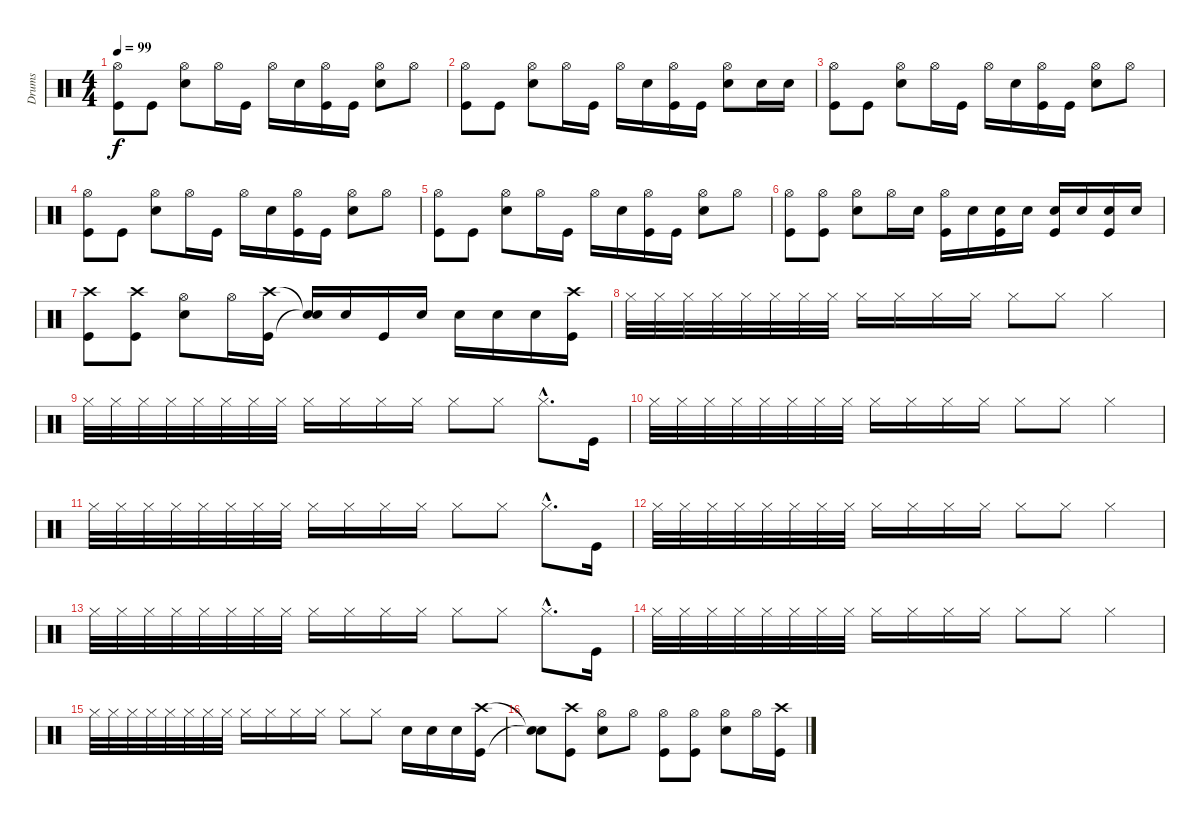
\track ("Drums" "Drums") {instrument percussion}
\staff {score}
\articulation defaults
\ts (4 4)
\tempo 99
\clef neutral
\ks c
("Hi-Hat (open)" "Kick (hit)").8{dy f} "Kick (hit)".8 ("Hi-Hat (open)" "Electric Snare (hit)").8 "Hi-Hat (open)".16 "Kick (hit)".16 "Hi-Hat (open)".16 "Electric Snare (hit)".16 ("Hi-Hat (open)" "Kick (hit)").16 "Kick (hit)".16 ("Hi-Hat (open)" "Electric Snare (hit)").8 "Hi-Hat (open)".8 |
("Hi-Hat (open)" "Kick (hit)").8 "Kick (hit)".8 ("Hi-Hat (open)" "Electric Snare (hit)").8 "Hi-Hat (open)".16 "Kick (hit)".16 "Hi-Hat (open)".16 "Electric Snare (hit)".16 ("Hi-Hat (open)" "Kick (hit)").16 "Kick (hit)".16 ("Hi-Hat (open)" "Electric Snare (hit)").8 "Electric Snare (hit)".16 "Electric Snare (hit)".16 |
("Hi-Hat (open)" "Kick (hit)").8 "Kick (hit)".8 ("Hi-Hat (open)" "Electric Snare (hit)").8 "Hi-Hat (open)".16 "Kick (hit)".16 "Hi-Hat (open)".16 "Electric Snare (hit)".16 ("Hi-Hat (open)" "Kick (hit)").16 "Kick (hit)".16 ("Hi-Hat (open)" "Electric Snare (hit)").8 "Hi-Hat (open)".8 |
("Hi-Hat (open)" "Kick (hit)").8 "Kick (hit)".8 ("Hi-Hat (open)" "Electric Snare (hit)").8 "Hi-Hat (open)".16 "Kick (hit)".16 "Hi-Hat (open)".16 "Electric Snare (hit)".16 ("Hi-Hat (open)" "Kick (hit)").16 "Kick (hit)".16 ("Hi-Hat (open)" "Electric Snare (hit)").8 "Hi-Hat (open)".8 |
("Hi-Hat (open)" "Kick (hit)").8 "Kick (hit)".8 ("Hi-Hat (open)" "Electric Snare (hit)").8 "Hi-Hat (open)".16 "Kick (hit)".16 "Hi-Hat (open)".16 "Electric Snare (hit)".16 ("Hi-Hat (open)" "Kick (hit)").16 "Kick (hit)".16 ("Hi-Hat (open)" "Electric Snare (hit)").8 "Hi-Hat (open)".8 |
("Hi-Hat (open)" "Kick (hit)").8 ("Hi-Hat (open)" "Kick (hit)").8 ("Hi-Hat (open)" "Electric Snare (hit)").8 "Hi-Hat (open)".16 "Electric Snare (hit)".16 ("Hi-Hat (open)" "Kick (hit)").16 "Electric Snare (hit)".16 ("Electric Snare (hit)" "Kick (hit)").16 "Electric Snare (hit)".16 ("Electric Snare (hit)" "Kick (hit)").16 "Electric Snare (hit)".16 ("Electric Snare (hit)" "Kick (hit)").16 "Electric Snare (hit)".16 |
("Crash high (hit)" "Kick (hit)").8 ("Crash high (hit)" "Kick (hit)").8 ("Hi-Hat (open)" "Electric Snare (hit)").8 "Hi-Hat (open)".16 ("Crash high (hit)" "Kick (hit)").16 ("Snare (hit)"{t} "Snare (hit)"{t}).16 "Electric Snare (hit)".16 "Kick (hit)".16 "Electric Snare (hit)".16 "Electric Snare (hit)".16 "Electric Snare (hit)".16 "Electric Snare (hit)".16 ("Crash high (hit)" "Kick (hit)").16 |
"Hi-Hat (closed)".32 "Hi-Hat (closed)".32 "Hi-Hat (closed)".32 "Hi-Hat (closed)".32 "Hi-Hat (closed)".32 "Hi-Hat (closed)".32 "Hi-Hat (closed)".32 "Hi-Hat (closed)".32 "Hi-Hat (closed)".16 "Hi-Hat (closed)".16 "Hi-Hat (closed)".16 "Hi-Hat (closed)".16 "Hi-Hat (closed)".8 "Hi-Hat (closed)".8 "Hi-Hat (closed)".4 |
"Hi-Hat (closed)".32 "Hi-Hat (closed)".32 "Hi-Hat (closed)".32 "Hi-Hat (closed)".32 "Hi-Hat (closed)".32 "Hi-Hat (closed)".32 "Hi-Hat (closed)".32 "Hi-Hat (closed)".32 "Hi-Hat (closed)".16 "Hi-Hat (closed)".16 "Hi-Hat (closed)".16 "Hi-Hat (closed)".16 "Hi-Hat (closed)".8 "Hi-Hat (closed)".8 "Hi-Hat (closed)"{hac}.8{d} "Kick (hit)".16 |
"Hi-Hat (closed)".32 "Hi-Hat (closed)".32 "Hi-Hat (closed)".32 "Hi-Hat (closed)".32 "Hi-Hat (closed)".32 "Hi-Hat (closed)".32 "Hi-Hat (closed)".32 "Hi-Hat (closed)".32 "Hi-Hat (closed)".16 "Hi-Hat (closed)".16 "Hi-Hat (closed)".16 "Hi-Hat (closed)".16 "Hi-Hat (closed)".8 "Hi-Hat (closed)".8 "Hi-Hat (closed)".4 |
"Hi-Hat (closed)".32 "Hi-Hat (closed)".32 "Hi-Hat (closed)".32 "Hi-Hat (closed)".32 "Hi-Hat (closed)".32 "Hi-Hat (closed)".32 "Hi-Hat (closed)".32 "Hi-Hat (closed)".32 "Hi-Hat (closed)".16 "Hi-Hat (closed)".16 "Hi-Hat (closed)".16 "Hi-Hat (closed)".16 "Hi-Hat (closed)".8 "Hi-Hat (closed)".8 "Hi-Hat (closed)"{hac}.8{d} "Kick (hit)".16 |
"Hi-Hat (closed)".32 "Hi-Hat (closed)".32 "Hi-Hat (closed)".32 "Hi-Hat (closed)".32 "Hi-Hat (closed)".32 "Hi-Hat (closed)".32 "Hi-Hat (closed)".32 "Hi-Hat (closed)".32 "Hi-Hat (closed)".16 "Hi-Hat (closed)".16 "Hi-Hat (closed)".16 "Hi-Hat (closed)".16 "Hi-Hat (closed)".8 "Hi-Hat (closed)".8 "Hi-Hat (closed)".4 |
"Hi-Hat (closed)".32 "Hi-Hat (closed)".32 "Hi-Hat (closed)".32 "Hi-Hat (closed)".32 "Hi-Hat (closed)".32 "Hi-Hat (closed)".32 "Hi-Hat (closed)".32 "Hi-Hat (closed)".32 "Hi-Hat (closed)".16 "Hi-Hat (closed)".16 "Hi-Hat (closed)".16 "Hi-Hat (closed)".16 "Hi-Hat (closed)".8 "Hi-Hat (closed)".8 "Hi-Hat (closed)"{hac}.8{d} "Kick (hit)".16 |
"Hi-Hat (closed)".32 "Hi-Hat (closed)".32 "Hi-Hat (closed)".32 "Hi-Hat (closed)".32 "Hi-Hat (closed)".32 "Hi-Hat (closed)".32 "Hi-Hat (closed)".32 "Hi-Hat (closed)".32 "Hi-Hat (closed)".16 "Hi-Hat (closed)".16 "Hi-Hat (closed)".16 "Hi-Hat (closed)".16 "Hi-Hat (closed)".8 "Hi-Hat (closed)".8 "Hi-Hat (closed)".4 |
"Hi-Hat (closed)".32 "Hi-Hat (closed)".32 "Hi-Hat (closed)".32 "Hi-Hat (closed)".32 "Hi-Hat (closed)".32 "Hi-Hat (closed)".32 "Hi-Hat (closed)".32 "Hi-Hat (closed)".32 "Hi-Hat (closed)".16 "Hi-Hat (closed)".16 "Hi-Hat (closed)".16 "Hi-Hat (closed)".16 "Hi-Hat (closed)".8 "Hi-Hat (closed)".8 "Electric Snare (hit)".16 "Electric Snare (hit)".16 "Electric Snare (hit)".16 ("Crash high (hit)" "Kick (hit)").16 |
("Snare (hit)"{t} "Snare (hit)"{t}).8 ("Crash high (hit)" "Kick (hit)").8 ("Hi-Hat (open)" "Electric Snare (hit)").8 "Hi-Hat (open)".8 ("Hi-Hat (open)" "Kick (hit)").8 ("Hi-Hat (open)" "Kick (hit)").8 ("Hi-Hat (open)" "Electric Snare (hit)").8 "Hi-Hat (open)".16 ("Crash high (hit)" "Kick (hit)").16
